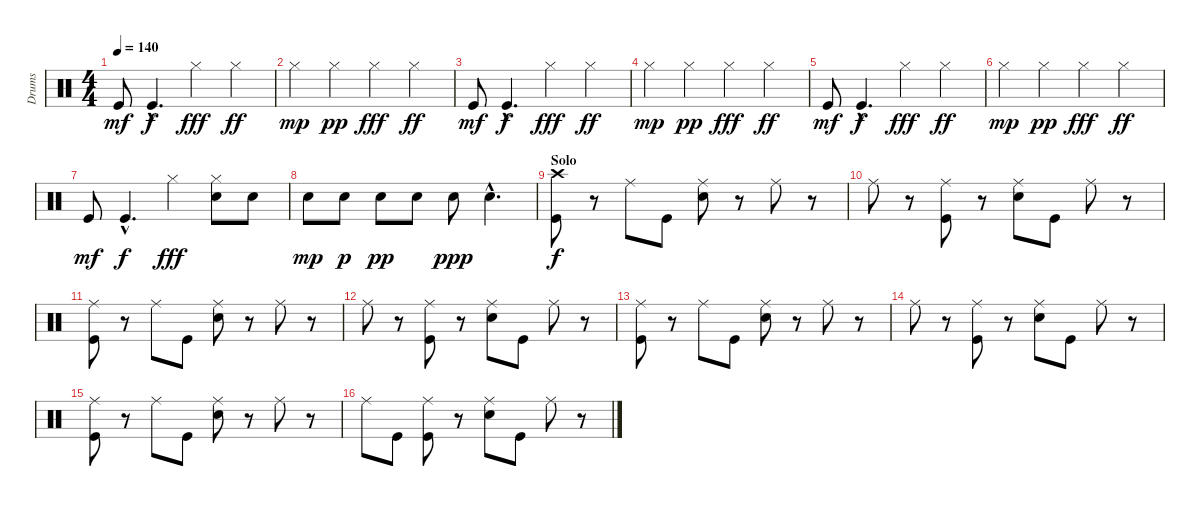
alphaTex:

\track ("Drums" "Drums") {instrument percussion}
\staff {score}
\articulation defaults
\ts (4 4)
\tempo 140
\clef neutral
\ks c "Kick (hit)".8{dy mf} "Kick (hit)"{hac}.4{d dy f} "Hi-Hat (closed)".4{dy fff} "Hi-Hat (closed)".4{dy ff}
|
"Hi-Hat (closed)".4{dy mp} "Hi-Hat (closed)".4{dy pp} "Hi-Hat (closed)".4{dy fff} "Hi-Hat (closed)".4{dy ff} |
"Kick (hit)".8{dy mf} "Kick (hit)"{hac}.4{d dy f} "Hi-Hat (closed)".4{dy fff} "Hi-Hat (closed)".4{dy ff} |
"Hi-Hat (closed)".4{dy mp} "Hi-Hat (closed)".4{dy pp} "Hi-Hat (closed)".4{dy fff} "Hi-Hat (closed)".4{dy ff} |
"Kick (hit)".8{dy mf} "Kick (hit)"{hac}.4{d dy f} "Hi-Hat (closed)".4{dy fff} "Hi-Hat (closed)".4{dy ff} |
"Hi-Hat (closed)".4{dy mp} "Hi-Hat (closed)".4{dy pp} "Hi-Hat (closed)".4{dy fff} "Hi-Hat (closed)".4{dy ff} |
"Kick (hit)".8{dy mf} "Kick (hit)"{hac}.4{d dy f} "Hi-Hat (closed)".4{dy fff} ("Hi-Hat (closed)" "Snare (hit) 2").8 "Snare (hit) 2".8 |
"Snare (hit) 2".8{dy mp} "Snare (hit) 2".8{dy p} "Snare (hit) 2".8{dy pp} "Snare (hit) 2".8 "Snare (hit) 2".8{dy ppp} "Snare (hit) 2"{hac}.4{d} |
\section ("" "Solo")
("Crash high (hit)" "Kick (hit)").8{dy f} r.8 "Ride (middle)".8 "Kick (hit)".8 ("Ride (middle)" "Snare (hit) 2").8 r.8 "Ride (middle)".8 r.8 |
"Ride (middle)".8 r.8 ("Ride (middle)" "Kick (hit)").8 r.8 ("Ride (middle)" "Snare (hit) 2").8 "Kick (hit)".8 "Ride (middle)".8 r.8 |
("Ride (middle)" "Kick (hit)").8 r.8 "Ride (middle)".8 "Kick (hit)".8 ("Ride (middle)" "Snare (hit) 2").8 r.8 "Ride (middle)".8 r.8 |
"Ride (middle)".8 r.8 ("Ride (middle)" "Kick (hit)").8 r.8 ("Ride (middle)" "Snare (hit) 2").8 "Kick (hit)".8 "Ride (middle)".8 r.8 |
("Ride (middle)" "Kick (hit)").8 r.8 "Ride (middle)".8 "Kick (hit)".8 ("Ride (middle)" "Snare (hit) 2").8 r.8 "Ride (middle)".8 r.8 |
"Ride (middle)".8 r.8 ("Ride (middle)" "Kick (hit)").8 r.8 ("Ride (middle)" "Snare (hit) 2").8 "Kick (hit)".8 "Ride (middle)".8 r.8 |
("Ride (middle)" "Kick (hit)").8 r.8 "Ride (middle)".8 "Kick (hit)".8 ("Ride (middle)" "Snare (hit) 2").8 r.8 "Ride (middle)".8 r.8 |
"Ride (middle)".8 "Kick (hit)".8 ("Ride (middle)" "Kick (hit)").8 r.8 ("Ride (middle)" "Snare (hit) 2").8 "Kick (hit)".8 "Ride (middle)".8 r.8
